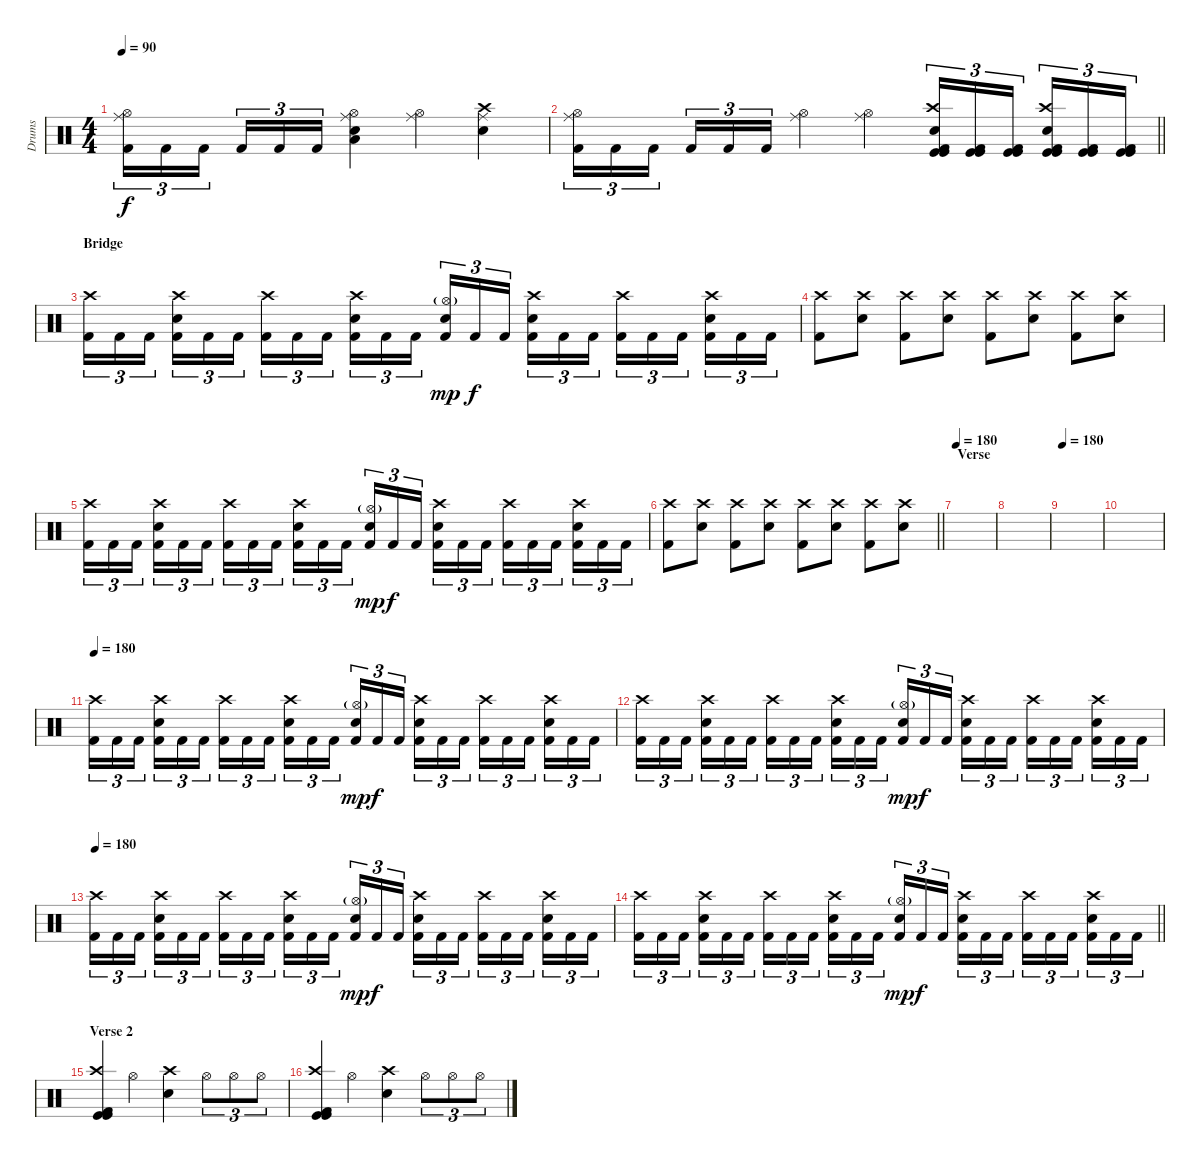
\track ("Drums" "Drums") {instrument percussion}
\staff {score}
\articulation defaults
\ts (4 4)
\tempo 90
\clef neutral
\ks c
("Kick (hit) 2" "Ride (middle)" "Hi-Hat (open)").16{tu (3 2) dy f} "Kick (hit) 2".16{tu (3 2)} "Kick (hit) 2".16{tu (3 2) beam splitsecondary} "Kick (hit) 2".16{tu (3 2)} "Kick (hit) 2".16{tu (3 2)} "Kick (hit) 2".16{tu (3 2)} ("Snare (hit) 2" "Ride (middle)" "Hi-Hat (open)" "Low Floor Tom (hit)").4 ("Ride (middle)" "Hi-Hat (open)").4 ("Snare (hit) 2" "Ride (middle)" "Crash high (hit)").4 |
\barLineRight lightlight
("Kick (hit) 2" "Ride (middle)" "Hi-Hat (open)").16{tu (3 2)} "Kick (hit) 2".16{tu (3 2)} "Kick (hit) 2".16{tu (3 2) beam splitsecondary} "Kick (hit) 2".16{tu (3 2)} "Kick (hit) 2".16{tu (3 2)} "Kick (hit) 2".16{tu (3 2)} ("Ride (middle)" "Hi-Hat (open)").4 ("Ride (middle)" "Hi-Hat (open)").4 ("Crash high (hit)" "Snare (hit) 2" "Kick (hit) 2" "Kick (hit)" "Kick (hit)").16{tu (3 2)} ("Kick (hit) 2" "Kick (hit)" "Kick (hit)").16{tu (3 2)} ("Kick (hit) 2" "Kick (hit)" "Kick (hit)").16{tu (3 2) beam splitsecondary} ("Crash high (hit)" "Snare (hit) 2" "Kick (hit) 2" "Kick (hit)" "Kick (hit)").16{tu (3 2)} ("Kick (hit) 2" "Kick (hit)" "Kick (hit)").16{tu (3 2)} ("Kick (hit) 2" "Kick (hit)" "Kick (hit)").16{tu (3 2)} |
\section ("" "Bridge")
("Crash high (hit)" "Kick (hit) 2").16{tu (3 2)} "Kick (hit) 2".16{tu (3 2)} "Kick (hit) 2".16{tu (3 2) beam splitsecondary} ("Crash high (hit)" "Snare (hit) 2" "Kick (hit) 2").16{tu (3 2)} "Kick (hit) 2".16{tu (3 2)} "Kick (hit) 2".16{tu (3 2)} ("Crash high (hit)" "Kick (hit) 2").16{tu (3 2)} "Kick (hit) 2".16{tu (3 2)} "Kick (hit) 2".16{tu (3 2) beam splitsecondary} ("Crash high (hit)" "Snare (hit) 2" "Kick (hit) 2").16{tu (3 2)} "Kick (hit) 2".16{tu (3 2)} "Kick (hit) 2".16{tu (3 2)} ("Snare (hit) 2" "Hi-Hat (open)"{g} "Kick (hit) 2").16{tu (3 2) dy mp} "Kick (hit) 2".16{tu (3 2) dy f} "Kick (hit) 2".16{tu (3 2) beam splitsecondary} ("Crash high (hit)" "Snare (hit) 2" "Kick (hit) 2").16{tu (3 2)} "Kick (hit) 2".16{tu (3 2)} "Kick (hit) 2".16{tu (3 2)} ("Crash high (hit)" "Kick (hit) 2").16{tu (3 2)} "Kick (hit) 2".16{tu (3 2)} "Kick (hit) 2".16{tu (3 2) beam splitsecondary} ("Snare (hit) 2" "Crash high (hit)" "Kick (hit) 2").16{tu (3 2)} "Kick (hit) 2".16{tu (3 2)} "Kick (hit) 2".16{tu (3 2)} |
("Crash high (hit)" "Kick (hit) 2").8 ("Crash high (hit)" "Snare (hit) 2").8 ("Crash high (hit)" "Kick (hit) 2").8 ("Crash high (hit)" "Snare (hit) 2").8 ("Crash high (hit)" "Kick (hit) 2").8 ("Crash high (hit)" "Snare (hit) 2").8 ("Crash high (hit)" "Kick (hit) 2").8 ("Crash high (hit)" "Snare (hit) 2").8 |
("Crash high (hit)" "Kick (hit) 2").16{tu (3 2)} "Kick (hit) 2".16{tu (3 2)} "Kick (hit) 2".16{tu (3 2) beam splitsecondary} ("Crash high (hit)" "Snare (hit) 2" "Kick (hit) 2").16{tu (3 2)} "Kick (hit) 2".16{tu (3 2)} "Kick (hit) 2".16{tu (3 2)} ("Crash high (hit)" "Kick (hit) 2").16{tu (3 2)} "Kick (hit) 2".16{tu (3 2)} "Kick (hit) 2".16{tu (3 2) beam splitsecondary} ("Crash high (hit)" "Snare (hit) 2" "Kick (hit) 2").16{tu (3 2)} "Kick (hit) 2".16{tu (3 2)} "Kick (hit) 2".16{tu (3 2)} ("Snare (hit) 2" "Hi-Hat (open)"{g} "Kick (hit) 2").16{tu (3 2) dy mp} "Kick (hit) 2".16{tu (3 2) dy f} "Kick (hit) 2".16{tu (3 2) beam splitsecondary} ("Crash high (hit)" "Snare (hit) 2" "Kick (hit) 2").16{tu (3 2)} "Kick (hit) 2".16{tu (3 2)} "Kick (hit) 2".16{tu (3 2)} ("Crash high (hit)" "Kick (hit) 2").16{tu (3 2)} "Kick (hit) 2".16{tu (3 2)} "Kick (hit) 2".16{tu (3 2) beam splitsecondary} ("Snare (hit) 2" "Crash high (hit)" "Kick (hit) 2").16{tu (3 2)} "Kick (hit) 2".16{tu (3 2)} "Kick (hit) 2".16{tu (3 2)} |
\barLineRight lightlight
("Crash high (hit)" "Kick (hit) 2").8 ("Crash high (hit)" "Snare (hit) 2").8 ("Crash high (hit)" "Kick (hit) 2").8 ("Crash high (hit)" "Snare (hit) 2").8 ("Crash high (hit)" "Kick (hit) 2").8 ("Crash high (hit)" "Snare (hit) 2").8 ("Crash high (hit)" "Kick (hit) 2").8 ("Crash high (hit)" "Snare (hit) 2").8 |
\section ("" "Verse")
\tempo 180
|
|
\tempo 180
|
|
\tempo 180
("Crash high (hit)" "Kick (hit) 2").16{tu (3 2)} "Kick (hit) 2".16{tu (3 2)} "Kick (hit) 2".16{tu (3 2) beam splitsecondary} ("Crash high (hit)" "Snare (hit) 2" "Kick (hit) 2").16{tu (3 2)} "Kick (hit) 2".16{tu (3 2)} "Kick (hit) 2".16{tu (3 2)} ("Crash high (hit)" "Kick (hit) 2").16{tu (3 2)} "Kick (hit) 2".16{tu (3 2)} "Kick (hit) 2".16{tu (3 2) beam splitsecondary} ("Crash high (hit)" "Snare (hit) 2" "Kick (hit) 2").16{tu (3 2)} "Kick (hit) 2".16{tu (3 2)} "Kick (hit) 2".16{tu (3 2)} ("Snare (hit) 2" "Hi-Hat (open)"{g} "Kick (hit) 2").16{tu (3 2) dy mp} "Kick (hit) 2".16{tu (3 2) dy f} "Kick (hit) 2".16{tu (3 2) beam splitsecondary} ("Crash high (hit)" "Snare (hit) 2" "Kick (hit) 2").16{tu (3 2)} "Kick (hit) 2".16{tu (3 2)} "Kick (hit) 2".16{tu (3 2)} ("Crash high (hit)" "Kick (hit) 2").16{tu (3 2)} "Kick (hit) 2".16{tu (3 2)} "Kick (hit) 2".16{tu (3 2) beam splitsecondary} ("Snare (hit) 2" "Crash high (hit)" "Kick (hit) 2").16{tu (3 2)} "Kick (hit) 2".16{tu (3 2)} "Kick (hit) 2".16{tu (3 2)} |
("Crash high (hit)" "Kick (hit) 2").16{tu (3 2)} "Kick (hit) 2".16{tu (3 2)} "Kick (hit) 2".16{tu (3 2) beam splitsecondary} ("Crash high (hit)" "Snare (hit) 2" "Kick (hit) 2").16{tu (3 2)} "Kick (hit) 2".16{tu (3 2)} "Kick (hit) 2".16{tu (3 2)} ("Crash high (hit)" "Kick (hit) 2").16{tu (3 2)} "Kick (hit) 2".16{tu (3 2)} "Kick (hit) 2".16{tu (3 2) beam splitsecondary} ("Crash high (hit)" "Snare (hit) 2" "Kick (hit) 2").16{tu (3 2)} "Kick (hit) 2".16{tu (3 2)} "Kick (hit) 2".16{tu (3 2)} ("Snare (hit) 2" "Hi-Hat (open)"{g} "Kick (hit) 2").16{tu (3 2) dy mp} "Kick (hit) 2".16{tu (3 2) dy f} "Kick (hit) 2".16{tu (3 2) beam splitsecondary} ("Crash high (hit)" "Snare (hit) 2" "Kick (hit) 2").16{tu (3 2)} "Kick (hit) 2".16{tu (3 2)} "Kick (hit) 2".16{tu (3 2)} ("Crash high (hit)" "Kick (hit) 2").16{tu (3 2)} "Kick (hit) 2".16{tu (3 2)} "Kick (hit) 2".16{tu (3 2) beam splitsecondary} ("Snare (hit) 2" "Crash high (hit)" "Kick (hit) 2").16{tu (3 2)} "Kick (hit) 2".16{tu (3 2)} "Kick (hit) 2".16{tu (3 2)} |
\tempo 180
("Crash high (hit)" "Kick (hit) 2").16{tu (3 2)} "Kick (hit) 2".16{tu (3 2)} "Kick (hit) 2".16{tu (3 2) beam splitsecondary} ("Crash high (hit)" "Snare (hit) 2" "Kick (hit) 2").16{tu (3 2)} "Kick (hit) 2".16{tu (3 2)} "Kick (hit) 2".16{tu (3 2)} ("Crash high (hit)" "Kick (hit) 2").16{tu (3 2)} "Kick (hit) 2".16{tu (3 2)} "Kick (hit) 2".16{tu (3 2) beam splitsecondary} ("Crash high (hit)" "Snare (hit) 2" "Kick (hit) 2").16{tu (3 2)} "Kick (hit) 2".16{tu (3 2)} "Kick (hit) 2".16{tu (3 2)} ("Snare (hit) 2" "Hi-Hat (open)"{g} "Kick (hit) 2").16{tu (3 2) dy mp} "Kick (hit) 2".16{tu (3 2) dy f} "Kick (hit) 2".16{tu (3 2) beam splitsecondary} ("Crash high (hit)" "Snare (hit) 2" "Kick (hit) 2").16{tu (3 2)} "Kick (hit) 2".16{tu (3 2)} "Kick (hit) 2".16{tu (3 2)} ("Crash high (hit)" "Kick (hit) 2").16{tu (3 2)} "Kick (hit) 2".16{tu (3 2)} "Kick (hit) 2".16{tu (3 2) beam splitsecondary} ("Snare (hit) 2" "Crash high (hit)" "Kick (hit) 2").16{tu (3 2)} "Kick (hit) 2".16{tu (3 2)} "Kick (hit) 2".16{tu (3 2)} |
\barLineRight lightlight
("Crash high (hit)" "Kick (hit) 2").16{tu (3 2)} "Kick (hit) 2".16{tu (3 2)} "Kick (hit) 2".16{tu (3 2) beam splitsecondary} ("Crash high (hit)" "Snare (hit) 2" "Kick (hit) 2").16{tu (3 2)} "Kick (hit) 2".16{tu (3 2)} "Kick (hit) 2".16{tu (3 2)} ("Crash high (hit)" "Kick (hit) 2").16{tu (3 2)} "Kick (hit) 2".16{tu (3 2)} "Kick (hit) 2".16{tu (3 2) beam splitsecondary} ("Crash high (hit)" "Snare (hit) 2" "Kick (hit) 2").16{tu (3 2)} "Kick (hit) 2".16{tu (3 2)} "Kick (hit) 2".16{tu (3 2)} ("Snare (hit) 2" "Hi-Hat (open)"{g} "Kick (hit) 2").16{tu (3 2) dy mp} "Kick (hit) 2".16{tu (3 2) dy f} "Kick (hit) 2".16{tu (3 2) beam splitsecondary} ("Crash high (hit)" "Snare (hit) 2" "Kick (hit) 2").16{tu (3 2)} "Kick (hit) 2".16{tu (3 2)} "Kick (hit) 2".16{tu (3 2)} ("Crash high (hit)" "Kick (hit) 2").16{tu (3 2)} "Kick (hit) 2".16{tu (3 2)} "Kick (hit) 2".16{tu (3 2) beam splitsecondary} ("Snare (hit) 2" "Crash high (hit)" "Kick (hit) 2").16{tu (3 2)} "Kick (hit) 2".16{tu (3 2)} "Kick (hit) 2".16{tu (3 2)} |
\section ("" "Verse 2")
("Crash high (hit)" "Kick (hit)" "Kick (hit)" "Kick (hit) 2").4 "Hi-Hat (open)".4 ("Crash high (hit)" "Snare (hit) 2").4 "Hi-Hat (open)".8{tu (3 2)} "Hi-Hat (open)".8{tu (3 2)} "Hi-Hat (open)".8{tu (3 2)} |
("Crash high (hit)" "Kick (hit)" "Kick (hit)" "Kick (hit) 2").4 "Hi-Hat (open)".4 ("Crash high (hit)" "Snare (hit) 2").4 "Hi-Hat (open)".8{tu (3 2)} "Hi-Hat (open)".8{tu (3 2)} "Hi-Hat (open)".8{tu (3 2)}
